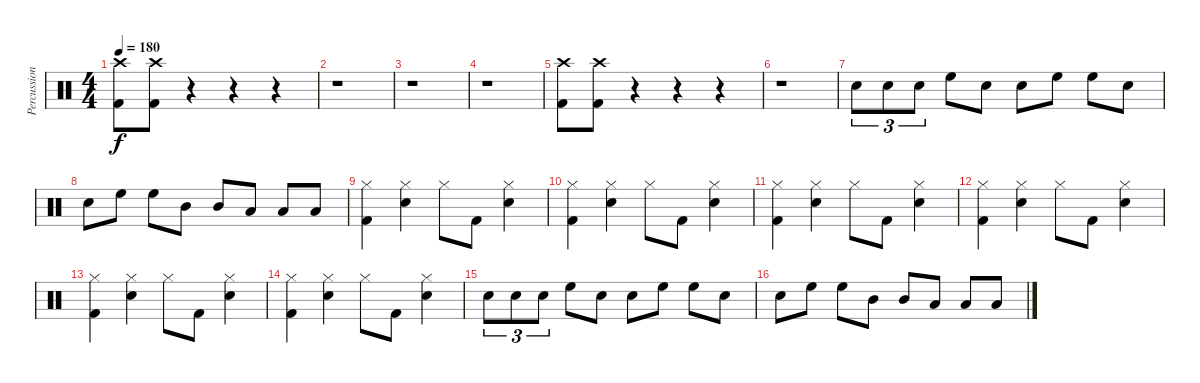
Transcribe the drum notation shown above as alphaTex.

\track ("Percussion" "Percussion") {instrument percussion}
\staff {score}
\articulation defaults
\ts (4 4)
\tempo 180
\clef neutral
\ks c
("Crash high (hit)" "Kick (hit) 2").8{dy f} ("Crash high (hit)" "Kick (hit) 2").8 r.4 r.4 r.4 |
r.1 |
r.1 |
r.1 |
("Crash high (hit)" "Kick (hit) 2").8 ("Crash high (hit)" "Kick (hit) 2").8 r.4 r.4 r.4 |
r.1 |
"Snare (hit) 2".8{tu (3 2)} "Snare (hit) 2".8{tu (3 2)} "Snare (hit) 2".8{tu (3 2)} "High Floor Tom (hit)".8 "Snare (hit) 2".8 "Snare (hit) 2".8 "High Floor Tom (hit)".8 "High Floor Tom (hit)".8 "Snare (hit) 2".8 |
"Snare (hit) 2".8 "High Floor Tom (hit)".8 "High Floor Tom (hit)".8 "Mid Tom (hit)".8 "Mid Tom (hit)".8 "Low Tom (hit)".8 "Low Tom (hit)".8 "Low Tom (hit)".8 |
("Hi-Hat (closed)" "Kick (hit) 2").4 ("Hi-Hat (closed)" "Snare (hit) 2").4 "Hi-Hat (closed)".8 "Kick (hit) 2".8 ("Hi-Hat (closed)" "Snare (hit) 2").4 |
("Hi-Hat (closed)" "Kick (hit) 2").4 ("Hi-Hat (closed)" "Snare (hit) 2").4 "Hi-Hat (closed)".8 "Kick (hit) 2".8 ("Hi-Hat (closed)" "Snare (hit) 2").4 |
("Hi-Hat (closed)" "Kick (hit) 2").4 ("Hi-Hat (closed)" "Snare (hit) 2").4 "Hi-Hat (closed)".8 "Kick (hit) 2".8 ("Hi-Hat (closed)" "Snare (hit) 2").4 |
("Hi-Hat (closed)" "Kick (hit) 2").4 ("Hi-Hat (closed)" "Snare (hit) 2").4 "Hi-Hat (closed)".8 "Kick (hit) 2".8 ("Hi-Hat (closed)" "Snare (hit) 2").4 |
("Hi-Hat (closed)" "Kick (hit) 2").4 ("Hi-Hat (closed)" "Snare (hit) 2").4 "Hi-Hat (closed)".8 "Kick (hit) 2".8 ("Hi-Hat (closed)" "Snare (hit) 2").4 |
("Hi-Hat (closed)" "Kick (hit) 2").4 ("Hi-Hat (closed)" "Snare (hit) 2").4 "Hi-Hat (closed)".8 "Kick (hit) 2".8 ("Hi-Hat (closed)" "Snare (hit) 2").4 |
"Snare (hit) 2".8{tu (3 2)} "Snare (hit) 2".8{tu (3 2)} "Snare (hit) 2".8{tu (3 2)} "High Floor Tom (hit)".8 "Snare (hit) 2".8 "Snare (hit) 2".8 "High Floor Tom (hit)".8 "High Floor Tom (hit)".8 "Snare (hit) 2".8 |
"Snare (hit) 2".8 "High Floor Tom (hit)".8 "High Floor Tom (hit)".8 "Mid Tom (hit)".8 "Mid Tom (hit)".8 "Low Tom (hit)".8 "Low Tom (hit)".8 "Low Tom (hit)".8
